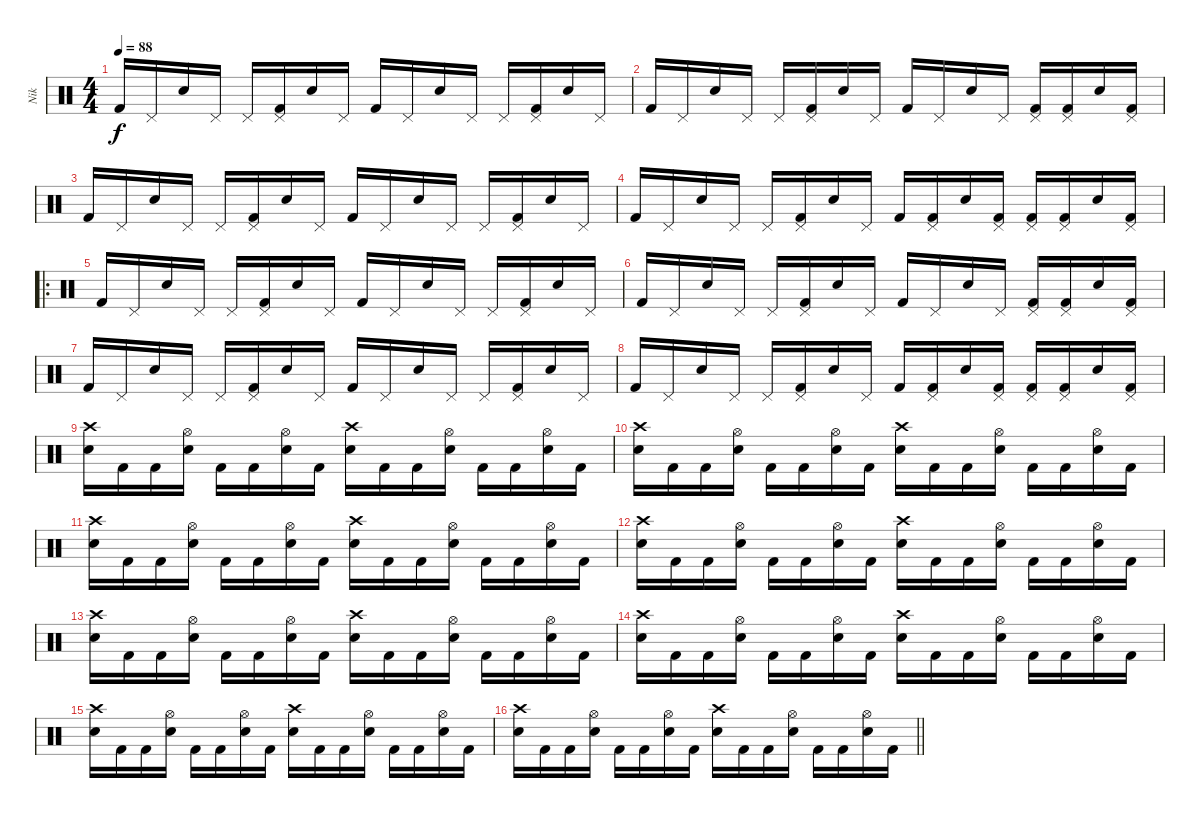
\track ("Nik" "Nik") {solo instrument percussion}
\staff {score}
\articulation defaults
\ts (4 4)
\tempo 88
\clef neutral
\ks c "Kick (hit) 2".16{dy f} "Pedal Hi-Hat (hit)".16 "Snare (hit) 2".16 "Pedal Hi-Hat (hit)".16 "Pedal Hi-Hat (hit)".16
("Pedal Hi-Hat (hit)" "Kick (hit) 2").16 "Snare (hit) 2".16 "Pedal Hi-Hat (hit)".16 "Kick (hit) 2".16 "Pedal Hi-Hat (hit)".16 "Snare (hit) 2".16 "Pedal Hi-Hat (hit)".16 "Pedal Hi-Hat (hit)".16 ("Pedal Hi-Hat (hit)" "Kick (hit) 2").16 "Snare (hit) 2".16 "Pedal Hi-Hat (hit)".16 |
"Kick (hit) 2".16 "Pedal Hi-Hat (hit)".16 "Snare (hit) 2".16 "Pedal Hi-Hat (hit)".16 "Pedal Hi-Hat (hit)".16 ("Pedal Hi-Hat (hit)" "Kick (hit) 2").16 "Snare (hit) 2".16 "Pedal Hi-Hat (hit)".16 "Kick (hit) 2".16 "Pedal Hi-Hat (hit)".16 "Snare (hit) 2".16 "Pedal Hi-Hat (hit)".16 ("Pedal Hi-Hat (hit)" "Kick (hit) 2").16 ("Pedal Hi-Hat (hit)" "Kick (hit) 2").16 "Snare (hit) 2".16 ("Pedal Hi-Hat (hit)" "Kick (hit) 2").16 |
"Kick (hit) 2".16 "Pedal Hi-Hat (hit)".16 "Snare (hit) 2".16 "Pedal Hi-Hat (hit)".16 "Pedal Hi-Hat (hit)".16 ("Pedal Hi-Hat (hit)" "Kick (hit) 2").16 "Snare (hit) 2".16 "Pedal Hi-Hat (hit)".16 "Kick (hit) 2".16 "Pedal Hi-Hat (hit)".16 "Snare (hit) 2".16 "Pedal Hi-Hat (hit)".16 "Pedal Hi-Hat (hit)".16 ("Pedal Hi-Hat (hit)" "Kick (hit) 2").16 "Snare (hit) 2".16 "Pedal Hi-Hat (hit)".16 |
"Kick (hit) 2".16 "Pedal Hi-Hat (hit)".16 "Snare (hit) 2".16 "Pedal Hi-Hat (hit)".16 "Pedal Hi-Hat (hit)".16 ("Pedal Hi-Hat (hit)" "Kick (hit) 2").16 "Snare (hit) 2".16 "Pedal Hi-Hat (hit)".16 "Kick (hit) 2".16 ("Pedal Hi-Hat (hit)" "Kick (hit) 2").16 "Snare (hit) 2".16 ("Pedal Hi-Hat (hit)" "Kick (hit) 2").16 ("Pedal Hi-Hat (hit)" "Kick (hit) 2").16 ("Pedal Hi-Hat (hit)" "Kick (hit) 2").16 "Snare (hit) 2".16 ("Pedal Hi-Hat (hit)" "Kick (hit) 2").16 |
\ro "Kick (hit) 2".16 "Pedal Hi-Hat (hit)".16 "Snare (hit) 2".16 "Pedal Hi-Hat (hit)".16 "Pedal Hi-Hat (hit)".16
("Pedal Hi-Hat (hit)" "Kick (hit) 2").16 "Snare (hit) 2".16 "Pedal Hi-Hat (hit)".16 "Kick (hit) 2".16 "Pedal Hi-Hat (hit)".16 "Snare (hit) 2".16 "Pedal Hi-Hat (hit)".16 "Pedal Hi-Hat (hit)".16 ("Pedal Hi-Hat (hit)" "Kick (hit) 2").16 "Snare (hit) 2".16 "Pedal Hi-Hat (hit)".16 |
"Kick (hit) 2".16 "Pedal Hi-Hat (hit)".16 "Snare (hit) 2".16 "Pedal Hi-Hat (hit)".16 "Pedal Hi-Hat (hit)".16 ("Pedal Hi-Hat (hit)" "Kick (hit) 2").16 "Snare (hit) 2".16 "Pedal Hi-Hat (hit)".16 "Kick (hit) 2".16 "Pedal Hi-Hat (hit)".16 "Snare (hit) 2".16 "Pedal Hi-Hat (hit)".16 ("Pedal Hi-Hat (hit)" "Kick (hit) 2").16 ("Pedal Hi-Hat (hit)" "Kick (hit) 2").16 "Snare (hit) 2".16 ("Pedal Hi-Hat (hit)" "Kick (hit) 2").16 |
"Kick (hit) 2".16 "Pedal Hi-Hat (hit)".16 "Snare (hit) 2".16 "Pedal Hi-Hat (hit)".16 "Pedal Hi-Hat (hit)".16 ("Pedal Hi-Hat (hit)" "Kick (hit) 2").16 "Snare (hit) 2".16 "Pedal Hi-Hat (hit)".16 "Kick (hit) 2".16 "Pedal Hi-Hat (hit)".16 "Snare (hit) 2".16 "Pedal Hi-Hat (hit)".16 "Pedal Hi-Hat (hit)".16 ("Pedal Hi-Hat (hit)" "Kick (hit) 2").16 "Snare (hit) 2".16 "Pedal Hi-Hat (hit)".16 |
"Kick (hit) 2".16 "Pedal Hi-Hat (hit)".16 "Snare (hit) 2".16 "Pedal Hi-Hat (hit)".16 "Pedal Hi-Hat (hit)".16 ("Pedal Hi-Hat (hit)" "Kick (hit) 2").16 "Snare (hit) 2".16 "Pedal Hi-Hat (hit)".16 "Kick (hit) 2".16 ("Pedal Hi-Hat (hit)" "Kick (hit) 2").16 "Snare (hit) 2".16 ("Pedal Hi-Hat (hit)" "Kick (hit) 2").16 ("Pedal Hi-Hat (hit)" "Kick (hit) 2").16 ("Pedal Hi-Hat (hit)" "Kick (hit) 2").16 "Snare (hit) 2".16 ("Pedal Hi-Hat (hit)" "Kick (hit) 2").16 |
("Crash high (hit)" "Snare (hit) 2").16 "Kick (hit) 2".16 "Kick (hit) 2".16 ("Hi-Hat (open)" "Snare (hit) 2").16 "Kick (hit) 2".16 "Kick (hit) 2".16 ("Hi-Hat (open)" "Snare (hit) 2").16 "Kick (hit) 2".16 ("Crash high (hit)" "Snare (hit) 2").16 "Kick (hit) 2".16 "Kick (hit) 2".16 ("Hi-Hat (open)" "Snare (hit) 2").16 "Kick (hit) 2".16 "Kick (hit) 2".16 ("Hi-Hat (open)" "Snare (hit) 2").16 "Kick (hit) 2".16 |
("Crash high (hit)" "Snare (hit) 2").16 "Kick (hit) 2".16 "Kick (hit) 2".16 ("Hi-Hat (open)" "Snare (hit) 2").16 "Kick (hit) 2".16 "Kick (hit) 2".16 ("Hi-Hat (open)" "Snare (hit) 2").16 "Kick (hit) 2".16 ("Crash high (hit)" "Snare (hit) 2").16 "Kick (hit) 2".16 "Kick (hit) 2".16 ("Hi-Hat (open)" "Snare (hit) 2").16 "Kick (hit) 2".16 "Kick (hit) 2".16 ("Hi-Hat (open)" "Snare (hit) 2").16 "Kick (hit) 2".16 |
("Crash high (hit)" "Snare (hit) 2").16 "Kick (hit) 2".16 "Kick (hit) 2".16 ("Hi-Hat (open)" "Snare (hit) 2").16 "Kick (hit) 2".16 "Kick (hit) 2".16 ("Hi-Hat (open)" "Snare (hit) 2").16 "Kick (hit) 2".16 ("Crash high (hit)" "Snare (hit) 2").16 "Kick (hit) 2".16 "Kick (hit) 2".16 ("Hi-Hat (open)" "Snare (hit) 2").16 "Kick (hit) 2".16 "Kick (hit) 2".16 ("Hi-Hat (open)" "Snare (hit) 2").16 "Kick (hit) 2".16 |
("Crash high (hit)" "Snare (hit) 2").16 "Kick (hit) 2".16 "Kick (hit) 2".16 ("Hi-Hat (open)" "Snare (hit) 2").16 "Kick (hit) 2".16 "Kick (hit) 2".16 ("Hi-Hat (open)" "Snare (hit) 2").16 "Kick (hit) 2".16 ("Crash high (hit)" "Snare (hit) 2").16 "Kick (hit) 2".16 "Kick (hit) 2".16 ("Hi-Hat (open)" "Snare (hit) 2").16 "Kick (hit) 2".16 "Kick (hit) 2".16 ("Hi-Hat (open)" "Snare (hit) 2").16 "Kick (hit) 2".16 |
("Crash high (hit)" "Snare (hit) 2").16 "Kick (hit) 2".16 "Kick (hit) 2".16 ("Hi-Hat (open)" "Snare (hit) 2").16 "Kick (hit) 2".16 "Kick (hit) 2".16 ("Hi-Hat (open)" "Snare (hit) 2").16 "Kick (hit) 2".16 ("Crash high (hit)" "Snare (hit) 2").16 "Kick (hit) 2".16 "Kick (hit) 2".16 ("Hi-Hat (open)" "Snare (hit) 2").16 "Kick (hit) 2".16 "Kick (hit) 2".16 ("Hi-Hat (open)" "Snare (hit) 2").16 "Kick (hit) 2".16 |
("Crash high (hit)" "Snare (hit) 2").16 "Kick (hit) 2".16 "Kick (hit) 2".16 ("Hi-Hat (open)" "Snare (hit) 2").16 "Kick (hit) 2".16 "Kick (hit) 2".16 ("Hi-Hat (open)" "Snare (hit) 2").16 "Kick (hit) 2".16 ("Crash high (hit)" "Snare (hit) 2").16 "Kick (hit) 2".16 "Kick (hit) 2".16 ("Hi-Hat (open)" "Snare (hit) 2").16 "Kick (hit) 2".16 "Kick (hit) 2".16 ("Hi-Hat (open)" "Snare (hit) 2").16 "Kick (hit) 2".16 |
("Crash high (hit)" "Snare (hit) 2").16 "Kick (hit) 2".16 "Kick (hit) 2".16 ("Hi-Hat (open)" "Snare (hit) 2").16 "Kick (hit) 2".16 "Kick (hit) 2".16 ("Hi-Hat (open)" "Snare (hit) 2").16 "Kick (hit) 2".16 ("Crash high (hit)" "Snare (hit) 2").16 "Kick (hit) 2".16 "Kick (hit) 2".16 ("Hi-Hat (open)" "Snare (hit) 2").16 "Kick (hit) 2".16 "Kick (hit) 2".16 ("Hi-Hat (open)" "Snare (hit) 2").16 "Kick (hit) 2".16 |
\barLineRight lightlight
("Crash high (hit)" "Snare (hit) 2").16 "Kick (hit) 2".16 "Kick (hit) 2".16 ("Hi-Hat (open)" "Snare (hit) 2").16 "Kick (hit) 2".16 "Kick (hit) 2".16 ("Hi-Hat (open)" "Snare (hit) 2").16 "Kick (hit) 2".16 ("Crash high (hit)" "Snare (hit) 2").16 "Kick (hit) 2".16 "Kick (hit) 2".16 ("Hi-Hat (open)" "Snare (hit) 2").16 "Kick (hit) 2".16 "Kick (hit) 2".16 ("Hi-Hat (open)" "Snare (hit) 2").16 "Kick (hit) 2".16
